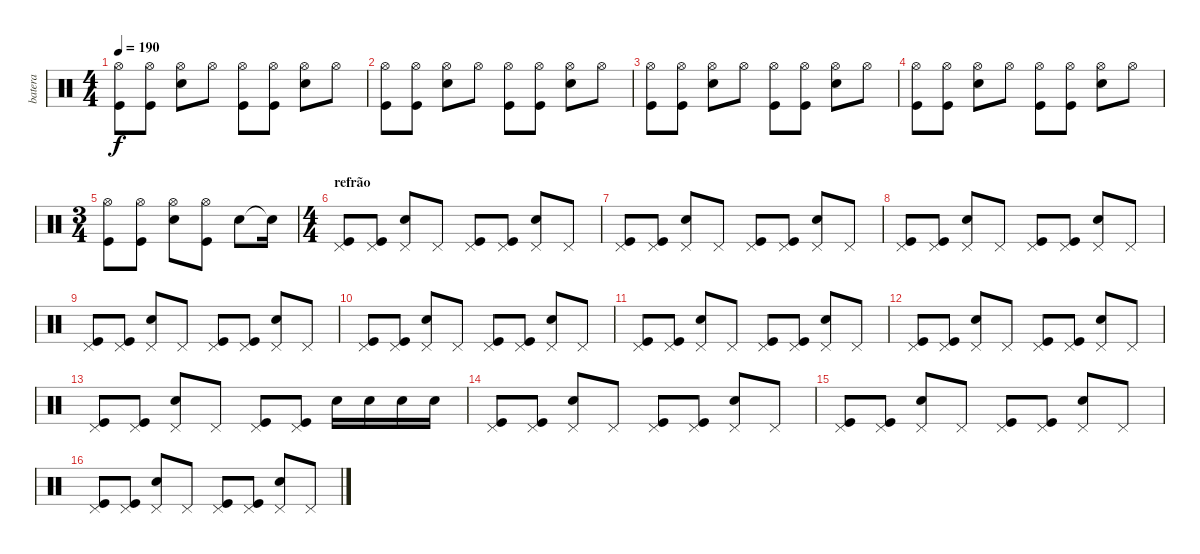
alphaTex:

\track ("batera" "batera") {instrument percussion}
\staff {score}
\articulation defaults
\ts (4 4)
\tempo 190
\clef neutral
\ks c
("Hi-Hat (open)" "Kick (hit)").8{dy f} ("Hi-Hat (open)" "Kick (hit)").8 ("Hi-Hat (open)" "Snare (hit) 2").8 "Hi-Hat (open)".8 ("Hi-Hat (open)" "Kick (hit)").8 ("Hi-Hat (open)" "Kick (hit)").8 ("Hi-Hat (open)" "Snare (hit) 2").8 "Hi-Hat (open)".8 |
("Hi-Hat (open)" "Kick (hit)").8 ("Hi-Hat (open)" "Kick (hit)").8 ("Hi-Hat (open)" "Snare (hit) 2").8 "Hi-Hat (open)".8 ("Hi-Hat (open)" "Kick (hit)").8 ("Hi-Hat (open)" "Kick (hit)").8 ("Hi-Hat (open)" "Snare (hit) 2").8 "Hi-Hat (open)".8 |
("Hi-Hat (open)" "Kick (hit)").8 ("Hi-Hat (open)" "Kick (hit)").8 ("Hi-Hat (open)" "Snare (hit) 2").8 "Hi-Hat (open)".8 ("Hi-Hat (open)" "Kick (hit)").8 ("Hi-Hat (open)" "Kick (hit)").8 ("Hi-Hat (open)" "Snare (hit) 2").8 "Hi-Hat (open)".8 |
("Hi-Hat (open)" "Kick (hit)").8 ("Hi-Hat (open)" "Kick (hit)").8 ("Hi-Hat (open)" "Snare (hit) 2").8 "Hi-Hat (open)".8 ("Hi-Hat (open)" "Kick (hit)").8 ("Hi-Hat (open)" "Kick (hit)").8 ("Hi-Hat (open)" "Snare (hit) 2").8 "Hi-Hat (open)".8 |
\ts (3 4)
("Hi-Hat (open)" "Kick (hit)").8 ("Hi-Hat (open)" "Kick (hit)").8 ("Hi-Hat (open)" "Snare (hit) 2").8 ("Hi-Hat (open)" "Kick (hit)").8 "Snare (hit) 2".8 "Snare (hit)"{t}.16 |
\ts (4 4)
\section ("" "refrão")
("Pedal Hi-Hat (hit)" "Kick (hit)").8 ("Pedal Hi-Hat (hit)" "Kick (hit)").8 ("Pedal Hi-Hat (hit)" "Snare (hit) 2").8 "Pedal Hi-Hat (hit)".8 ("Pedal Hi-Hat (hit)" "Kick (hit)").8 ("Pedal Hi-Hat (hit)" "Kick (hit)").8 ("Pedal Hi-Hat (hit)" "Snare (hit) 2").8 "Pedal Hi-Hat (hit)".8 |
("Pedal Hi-Hat (hit)" "Kick (hit)").8 ("Pedal Hi-Hat (hit)" "Kick (hit)").8 ("Pedal Hi-Hat (hit)" "Snare (hit) 2").8 "Pedal Hi-Hat (hit)".8 ("Pedal Hi-Hat (hit)" "Kick (hit)").8 ("Pedal Hi-Hat (hit)" "Kick (hit)").8 ("Pedal Hi-Hat (hit)" "Snare (hit) 2").8 "Pedal Hi-Hat (hit)".8 |
("Pedal Hi-Hat (hit)" "Kick (hit)").8 ("Pedal Hi-Hat (hit)" "Kick (hit)").8 ("Pedal Hi-Hat (hit)" "Snare (hit) 2").8 "Pedal Hi-Hat (hit)".8 ("Pedal Hi-Hat (hit)" "Kick (hit)").8 ("Pedal Hi-Hat (hit)" "Kick (hit)").8 ("Pedal Hi-Hat (hit)" "Snare (hit) 2").8 "Pedal Hi-Hat (hit)".8 |
("Pedal Hi-Hat (hit)" "Kick (hit)").8 ("Pedal Hi-Hat (hit)" "Kick (hit)").8 ("Pedal Hi-Hat (hit)" "Snare (hit) 2").8 "Pedal Hi-Hat (hit)".8 ("Pedal Hi-Hat (hit)" "Kick (hit)").8 ("Pedal Hi-Hat (hit)" "Kick (hit)").8 ("Pedal Hi-Hat (hit)" "Snare (hit) 2").8 "Pedal Hi-Hat (hit)".8 |
("Pedal Hi-Hat (hit)" "Kick (hit)").8 ("Pedal Hi-Hat (hit)" "Kick (hit)").8 ("Pedal Hi-Hat (hit)" "Snare (hit) 2").8 "Pedal Hi-Hat (hit)".8 ("Pedal Hi-Hat (hit)" "Kick (hit)").8 ("Pedal Hi-Hat (hit)" "Kick (hit)").8 ("Pedal Hi-Hat (hit)" "Snare (hit) 2").8 "Pedal Hi-Hat (hit)".8 |
("Pedal Hi-Hat (hit)" "Kick (hit)").8 ("Pedal Hi-Hat (hit)" "Kick (hit)").8 ("Pedal Hi-Hat (hit)" "Snare (hit) 2").8 "Pedal Hi-Hat (hit)".8 ("Pedal Hi-Hat (hit)" "Kick (hit)").8 ("Pedal Hi-Hat (hit)" "Kick (hit)").8 ("Pedal Hi-Hat (hit)" "Snare (hit) 2").8 "Pedal Hi-Hat (hit)".8 |
("Pedal Hi-Hat (hit)" "Kick (hit)").8 ("Pedal Hi-Hat (hit)" "Kick (hit)").8 ("Pedal Hi-Hat (hit)" "Snare (hit) 2").8 "Pedal Hi-Hat (hit)".8 ("Pedal Hi-Hat (hit)" "Kick (hit)").8 ("Pedal Hi-Hat (hit)" "Kick (hit)").8 ("Pedal Hi-Hat (hit)" "Snare (hit) 2").8 "Pedal Hi-Hat (hit)".8 |
("Pedal Hi-Hat (hit)" "Kick (hit)").8 ("Pedal Hi-Hat (hit)" "Kick (hit)").8 ("Pedal Hi-Hat (hit)" "Snare (hit) 2").8 "Pedal Hi-Hat (hit)".8 ("Pedal Hi-Hat (hit)" "Kick (hit)").8 ("Pedal Hi-Hat (hit)" "Kick (hit)").8 "Snare (hit) 2".16 "Snare (hit) 2".16 "Snare (hit) 2".16 "Snare (hit) 2".16 |
("Pedal Hi-Hat (hit)" "Kick (hit)").8 ("Pedal Hi-Hat (hit)" "Kick (hit)").8 ("Pedal Hi-Hat (hit)" "Snare (hit) 2").8 "Pedal Hi-Hat (hit)".8 ("Pedal Hi-Hat (hit)" "Kick (hit)").8 ("Pedal Hi-Hat (hit)" "Kick (hit)").8 ("Pedal Hi-Hat (hit)" "Snare (hit) 2").8 "Pedal Hi-Hat (hit)".8 |
("Pedal Hi-Hat (hit)" "Kick (hit)").8 ("Pedal Hi-Hat (hit)" "Kick (hit)").8 ("Pedal Hi-Hat (hit)" "Snare (hit) 2").8 "Pedal Hi-Hat (hit)".8 ("Pedal Hi-Hat (hit)" "Kick (hit)").8 ("Pedal Hi-Hat (hit)" "Kick (hit)").8 ("Pedal Hi-Hat (hit)" "Snare (hit) 2").8 "Pedal Hi-Hat (hit)".8 |
("Pedal Hi-Hat (hit)" "Kick (hit)").8 ("Pedal Hi-Hat (hit)" "Kick (hit)").8 ("Pedal Hi-Hat (hit)" "Snare (hit) 2").8 "Pedal Hi-Hat (hit)".8 ("Pedal Hi-Hat (hit)" "Kick (hit)").8 ("Pedal Hi-Hat (hit)" "Kick (hit)").8 ("Pedal Hi-Hat (hit)" "Snare (hit) 2").8 "Pedal Hi-Hat (hit)".8
